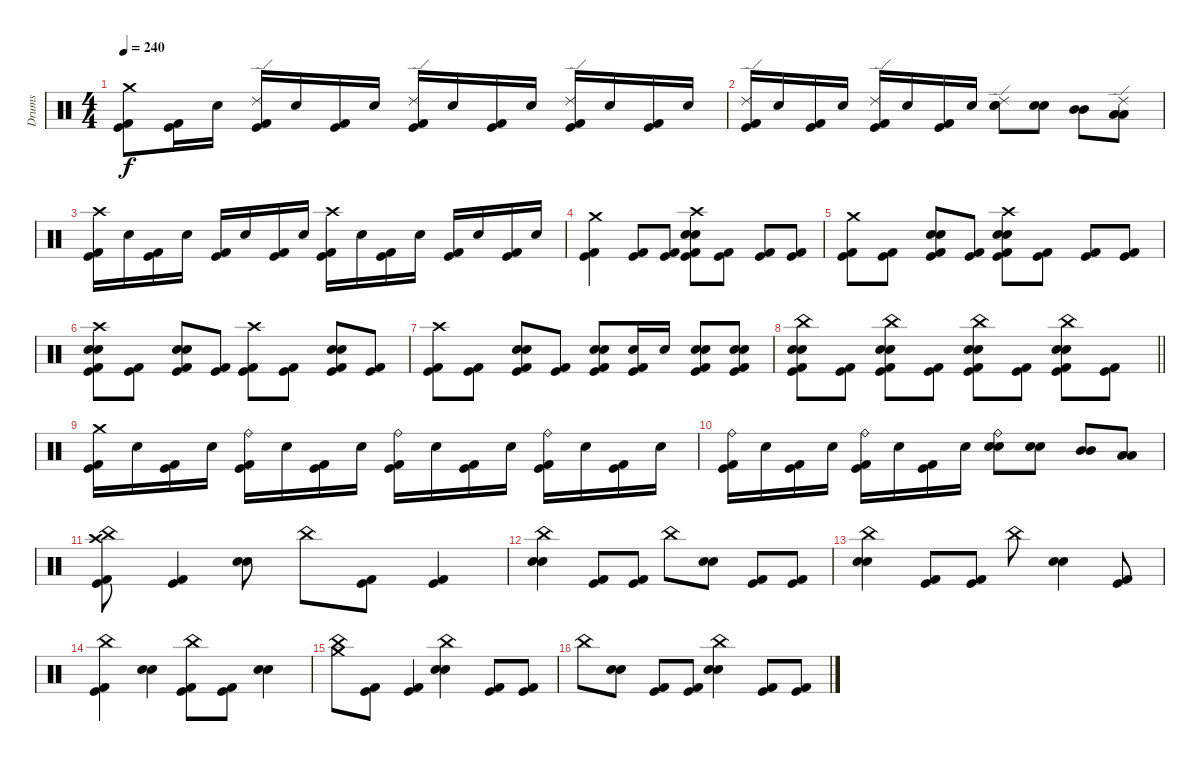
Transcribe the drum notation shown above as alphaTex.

\track ("Drums" "Drums") {instrument percussion bank 10}
\staff {score}
\articulation defaults
\ts (4 4)
\tempo 240
\clef neutral
\ks c
("Crash medium (hit)" "Kick (hit) 2" "Kick (hit)").8{dy f} ("Kick (hit) 2" "Kick (hit)").16 "Electric Snare (hit)".16 ("Ride (edge) 2" "Kick (hit) 2" "Kick (hit)").16 "Electric Snare (hit)".16 ("Kick (hit) 2" "Kick (hit)").16 "Electric Snare (hit)".16 ("Ride (edge) 2" "Kick (hit) 2" "Kick (hit)").16 "Electric Snare (hit)".16 ("Kick (hit) 2" "Kick (hit)").16 "Electric Snare (hit)".16 ("Ride (edge) 2" "Kick (hit) 2" "Kick (hit)").16 "Electric Snare (hit)".16 ("Kick (hit) 2" "Kick (hit)").16 "Electric Snare (hit)".16 |
("Ride (edge) 2" "Kick (hit) 2" "Kick (hit)").16 "Electric Snare (hit)".16 ("Kick (hit) 2" "Kick (hit)").16 "Electric Snare (hit)".16 ("Ride (edge) 2" "Kick (hit) 2" "Kick (hit)").16 "Electric Snare (hit)".16 ("Kick (hit) 2" "Kick (hit)").16 "Electric Snare (hit)".16 ("Ride (edge) 2" "Electric Snare (hit)" "Electric Snare (hit)").8 ("Electric Snare (hit)" "Electric Snare (hit)").8 ("Mid Tom (hit)" "Mid Tom (hit)").8 ("Ride (edge) 2" "Low Tom (hit)" "Low Tom (hit)").8 |
("Crash high (hit)" "Kick (hit) 2" "Kick (hit)").16 "Electric Snare (hit)".16 ("Kick (hit) 2" "Kick (hit)").16 "Electric Snare (hit)".16 ("Kick (hit) 2" "Kick (hit)").16 "Electric Snare (hit)".16 ("Kick (hit) 2" "Kick (hit)").16 "Electric Snare (hit)".16 ("Crash high (hit)" "Kick (hit) 2" "Kick (hit)").16 "Electric Snare (hit)".16 ("Kick (hit) 2" "Kick (hit)").16 "Electric Snare (hit)".16 ("Kick (hit) 2" "Kick (hit)").16 "Electric Snare (hit)".16 ("Kick (hit) 2" "Kick (hit)").16 "Electric Snare (hit)".16 |
("Crash medium (hit)" "Kick (hit) 2" "Kick (hit)").4 ("Kick (hit) 2" "Kick (hit)").8 ("Kick (hit) 2" "Kick (hit)").8 ("Crash high (hit)" "Electric Snare (hit)" "Electric Snare (hit)" "Kick (hit) 2" "Kick (hit)").8 ("Kick (hit) 2" "Kick (hit)").8 ("Kick (hit) 2" "Kick (hit)").8 ("Kick (hit) 2" "Kick (hit)").8 |
("Crash medium (hit)" "Kick (hit) 2" "Kick (hit)").8 ("Kick (hit) 2" "Kick (hit)").8 ("Electric Snare (hit)" "Electric Snare (hit)" "Kick (hit) 2" "Kick (hit)").8 ("Kick (hit) 2" "Kick (hit)").8 ("Crash high (hit)" "Electric Snare (hit)" "Electric Snare (hit)" "Kick (hit) 2" "Kick (hit)").8 ("Kick (hit) 2" "Kick (hit)").8 ("Kick (hit) 2" "Kick (hit)").8 ("Kick (hit) 2" "Kick (hit)").8 |
("Crash high (hit)" "Electric Snare (hit)" "Electric Snare (hit)" "Kick (hit) 2" "Kick (hit)").8 ("Kick (hit) 2" "Kick (hit)").8 ("Electric Snare (hit)" "Electric Snare (hit)" "Kick (hit) 2" "Kick (hit)").8 ("Kick (hit) 2" "Kick (hit)").8 ("Crash high (hit)" "Kick (hit) 2" "Kick (hit)").8 ("Kick (hit) 2" "Kick (hit)").8 ("Electric Snare (hit)" "Electric Snare (hit)" "Kick (hit) 2" "Kick (hit)").8 ("Kick (hit) 2" "Kick (hit)").8 |
("Crash high (hit)" "Kick (hit) 2" "Kick (hit)").8 ("Kick (hit) 2" "Kick (hit)").8 ("Electric Snare (hit)" "Electric Snare (hit)" "Kick (hit) 2" "Kick (hit)").8 ("Kick (hit) 2" "Kick (hit)").8 ("Electric Snare (hit)" "Electric Snare (hit)" "Kick (hit) 2" "Kick (hit)").8 ("Electric Snare (hit)" "Kick (hit) 2" "Kick (hit)").16 "Electric Snare (hit)".16 ("Electric Snare (hit)" "Electric Snare (hit)" "Kick (hit) 2" "Kick (hit)").8 ("Electric Snare (hit)" "Electric Snare (hit)" "Kick (hit) 2" "Kick (hit)").8 |
\barLineRight lightlight
("China (hit)" "Electric Snare (hit)" "Electric Snare (hit)" "Kick (hit) 2" "Kick (hit)").8 ("Kick (hit) 2" "Kick (hit)").8 ("China (hit)" "Electric Snare (hit)" "Electric Snare (hit)" "Kick (hit) 2" "Kick (hit)").8 ("Kick (hit) 2" "Kick (hit)").8 ("China (hit)" "Electric Snare (hit)" "Electric Snare (hit)" "Kick (hit) 2" "Kick (hit)").8 ("Kick (hit) 2" "Kick (hit)").8 ("China (hit)" "Electric Snare (hit)" "Electric Snare (hit)" "Kick (hit) 2" "Kick (hit)").8 ("Kick (hit) 2" "Kick (hit)").8 |
("Crash medium (hit)" "Kick (hit) 2" "Kick (hit)").16 "Electric Snare (hit)".16 ("Kick (hit) 2" "Kick (hit)").16 "Electric Snare (hit)".16 ("Ride (bell)" "Kick (hit) 2" "Kick (hit)").16 "Electric Snare (hit)".16 ("Kick (hit) 2" "Kick (hit)").16 "Electric Snare (hit)".16 ("Ride (bell)" "Kick (hit) 2" "Kick (hit)").16 "Electric Snare (hit)".16 ("Kick (hit) 2" "Kick (hit)").16 "Electric Snare (hit)".16 ("Ride (bell)" "Kick (hit) 2" "Kick (hit)").16 "Electric Snare (hit)".16 ("Kick (hit) 2" "Kick (hit)").16 "Electric Snare (hit)".16 |
("Ride (bell)" "Kick (hit) 2" "Kick (hit)").16 "Electric Snare (hit)".16 ("Kick (hit) 2" "Kick (hit)").16 "Electric Snare (hit)".16 ("Ride (bell)" "Kick (hit) 2" "Kick (hit)").16 "Electric Snare (hit)".16 ("Kick (hit) 2" "Kick (hit)").16 "Electric Snare (hit)".16 ("Ride (bell)" "Electric Snare (hit)" "Electric Snare (hit)").8 ("Electric Snare (hit)" "Electric Snare (hit)").8 ("Mid Tom (hit)" "Mid Tom (hit)").8 ("Low Tom (hit)" "Low Tom (hit)").8 |
("Crash high (hit)" "China (hit)" "Kick (hit) 2" "Kick (hit)").8 ("Kick (hit) 2" "Kick (hit)").4 ("Electric Snare (hit)" "Electric Snare (hit)").8 "China (hit)".8 ("Kick (hit) 2" "Kick (hit)").8 ("Kick (hit) 2" "Kick (hit)").4 |
("China (hit)" "Electric Snare (hit)" "Electric Snare (hit)").4 ("Kick (hit) 2" "Kick (hit)").8 ("Kick (hit) 2" "Kick (hit)").8 "China (hit)".8 ("Electric Snare (hit)" "Electric Snare (hit)").8 ("Kick (hit) 2" "Kick (hit)").8 ("Kick (hit) 2" "Kick (hit)").8 |
("China (hit)" "Electric Snare (hit)" "Electric Snare (hit)").4 ("Kick (hit) 2" "Kick (hit)").8 ("Kick (hit) 2" "Kick (hit)").8 "China (hit)".8 ("Electric Snare (hit)" "Electric Snare (hit)").4 ("Kick (hit) 2" "Kick (hit)").8 |
("China (hit)" "Kick (hit) 2" "Kick (hit)").4 ("Electric Snare (hit)" "Electric Snare (hit)").4 ("China (hit)" "Kick (hit) 2" "Kick (hit)").8 ("Kick (hit) 2" "Kick (hit)").8 ("Electric Snare (hit)" "Electric Snare (hit)").4 |
("Crash medium (hit)" "China (hit)").8 ("Kick (hit) 2" "Kick (hit)").8 ("Kick (hit) 2" "Kick (hit)").4 ("China (hit)" "Electric Snare (hit)" "Electric Snare (hit)").4 ("Kick (hit) 2" "Kick (hit)").8 ("Kick (hit) 2" "Kick (hit)").8 |
"China (hit)".8 ("Electric Snare (hit)" "Electric Snare (hit)").8 ("Kick (hit) 2" "Kick (hit)").8 ("Kick (hit) 2" "Kick (hit)").8 ("China (hit)" "Electric Snare (hit)" "Electric Snare (hit)").4 ("Kick (hit) 2" "Kick (hit)").8 ("Kick (hit) 2" "Kick (hit)").8
